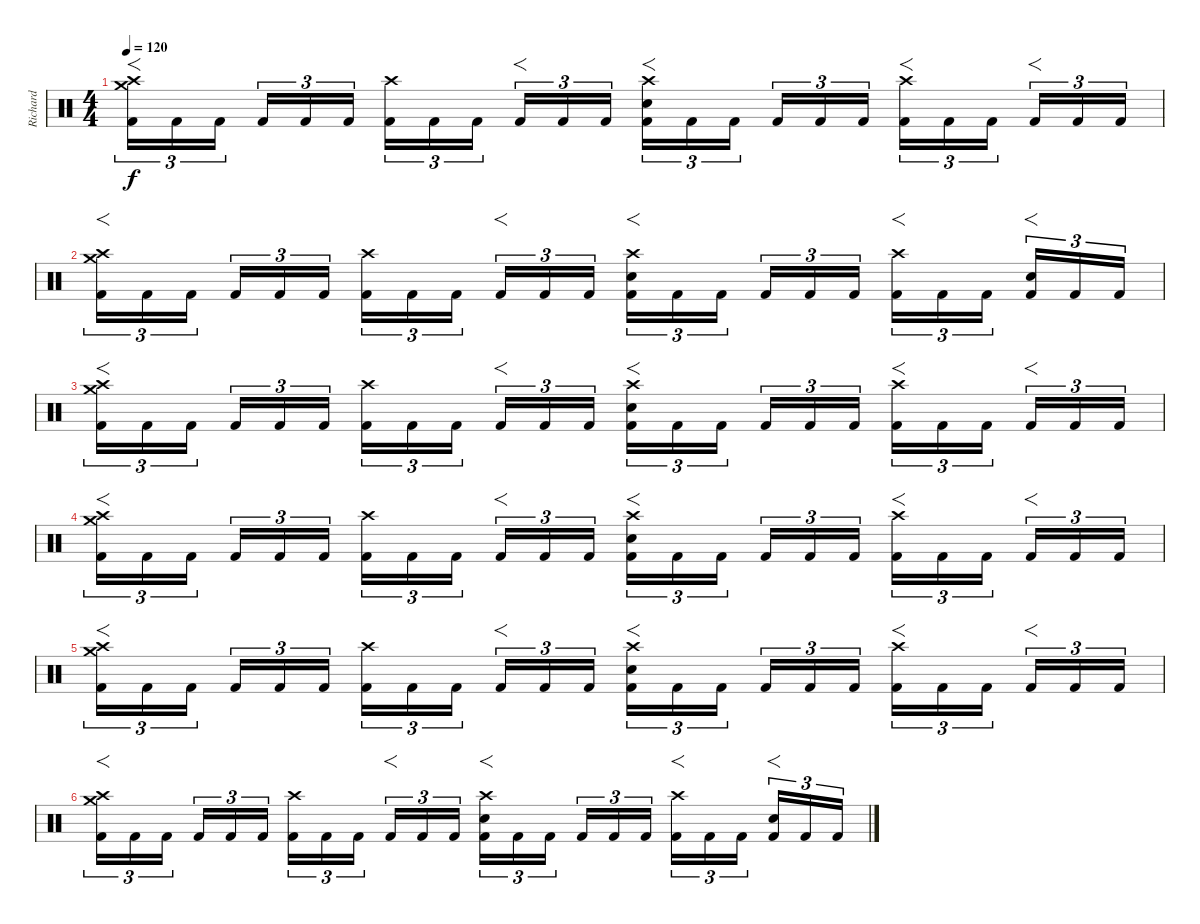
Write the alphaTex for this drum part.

\track ("Richard " "Richard ") {instrument percussion}
\staff {score}
\articulation defaults
\ts (4 4)
\tempo 120
\clef neutral
\ks c
("Crash high (hit)" "Crash medium (hit)" "Kick (hit) 2").16{f tu (3 2) dy f volume 6} "Kick (hit) 2".16{tu (3 2)} "Kick (hit) 2".16{tu (3 2)} "Kick (hit) 2".16{tu (3 2)} "Kick (hit) 2".16{tu (3 2)} "Kick (hit) 2".16{tu (3 2)} ("Crash high (hit)" "Kick (hit) 2").16{tu (3 2)} "Kick (hit) 2".16{tu (3 2)} "Kick (hit) 2".16{tu (3 2)} "Kick (hit) 2".16{f tu (3 2)} "Kick (hit) 2".16{tu (3 2)} "Kick (hit) 2".16{tu (3 2)} ("Crash high (hit)" "Snare (hit) 2" "Kick (hit) 2").16{f tu (3 2)} "Kick (hit) 2".16{tu (3 2)} "Kick (hit) 2".16{tu (3 2)} "Kick (hit) 2".16{tu (3 2)} "Kick (hit) 2".16{tu (3 2)} "Kick (hit) 2".16{tu (3 2)} ("Crash high (hit)" "Kick (hit) 2").16{f tu (3 2)} "Kick (hit) 2".16{tu (3 2)} "Kick (hit) 2".16{tu (3 2)} "Kick (hit) 2".16{f tu (3 2)} "Kick (hit) 2".16{tu (3 2)} "Kick (hit) 2".16{tu (3 2)} |
("Crash high (hit)" "Crash medium (hit)" "Kick (hit) 2").16{f tu (3 2) volume 6} "Kick (hit) 2".16{tu (3 2)} "Kick (hit) 2".16{tu (3 2)} "Kick (hit) 2".16{tu (3 2)} "Kick (hit) 2".16{tu (3 2)} "Kick (hit) 2".16{tu (3 2)} ("Crash high (hit)" "Kick (hit) 2").16{tu (3 2)} "Kick (hit) 2".16{tu (3 2)} "Kick (hit) 2".16{tu (3 2)} "Kick (hit) 2".16{f tu (3 2)} "Kick (hit) 2".16{tu (3 2)} "Kick (hit) 2".16{tu (3 2)} ("Crash high (hit)" "Snare (hit) 2" "Kick (hit) 2").16{f tu (3 2)} "Kick (hit) 2".16{tu (3 2)} "Kick (hit) 2".16{tu (3 2)} "Kick (hit) 2".16{tu (3 2)} "Kick (hit) 2".16{tu (3 2)} "Kick (hit) 2".16{tu (3 2)} ("Crash high (hit)" "Kick (hit) 2").16{f tu (3 2)} "Kick (hit) 2".16{tu (3 2)} "Kick (hit) 2".16{tu (3 2)} ("Snare (hit) 2" "Kick (hit) 2").16{f tu (3 2)} "Kick (hit) 2".16{tu (3 2)} "Kick (hit) 2".16{tu (3 2)} |
("Crash high (hit)" "Crash medium (hit)" "Kick (hit) 2").16{f tu (3 2) volume 4} "Kick (hit) 2".16{tu (3 2)} "Kick (hit) 2".16{tu (3 2)} "Kick (hit) 2".16{tu (3 2)} "Kick (hit) 2".16{tu (3 2)} "Kick (hit) 2".16{tu (3 2)} ("Crash high (hit)" "Kick (hit) 2").16{tu (3 2)} "Kick (hit) 2".16{tu (3 2)} "Kick (hit) 2".16{tu (3 2)} "Kick (hit) 2".16{f tu (3 2)} "Kick (hit) 2".16{tu (3 2)} "Kick (hit) 2".16{tu (3 2)} ("Crash high (hit)" "Snare (hit) 2" "Kick (hit) 2").16{f tu (3 2)} "Kick (hit) 2".16{tu (3 2)} "Kick (hit) 2".16{tu (3 2)} "Kick (hit) 2".16{tu (3 2)} "Kick (hit) 2".16{tu (3 2)} "Kick (hit) 2".16{tu (3 2)} ("Crash high (hit)" "Kick (hit) 2").16{f tu (3 2)} "Kick (hit) 2".16{tu (3 2)} "Kick (hit) 2".16{tu (3 2)} "Kick (hit) 2".16{f tu (3 2)} "Kick (hit) 2".16{tu (3 2)} "Kick (hit) 2".16{tu (3 2)} |
("Crash high (hit)" "Crash medium (hit)" "Kick (hit) 2").16{f tu (3 2) volume 3} "Kick (hit) 2".16{tu (3 2)} "Kick (hit) 2".16{tu (3 2)} "Kick (hit) 2".16{tu (3 2)} "Kick (hit) 2".16{tu (3 2)} "Kick (hit) 2".16{tu (3 2)} ("Crash high (hit)" "Kick (hit) 2").16{tu (3 2)} "Kick (hit) 2".16{tu (3 2)} "Kick (hit) 2".16{tu (3 2)} "Kick (hit) 2".16{f tu (3 2)} "Kick (hit) 2".16{tu (3 2)} "Kick (hit) 2".16{tu (3 2)} ("Crash high (hit)" "Snare (hit) 2" "Kick (hit) 2").16{f tu (3 2)} "Kick (hit) 2".16{tu (3 2)} "Kick (hit) 2".16{tu (3 2)} "Kick (hit) 2".16{tu (3 2)} "Kick (hit) 2".16{tu (3 2)} "Kick (hit) 2".16{tu (3 2)} ("Crash high (hit)" "Kick (hit) 2").16{f tu (3 2)} "Kick (hit) 2".16{tu (3 2)} "Kick (hit) 2".16{tu (3 2)} "Kick (hit) 2".16{f tu (3 2)} "Kick (hit) 2".16{tu (3 2)} "Kick (hit) 2".16{tu (3 2)} |
("Crash high (hit)" "Crash medium (hit)" "Kick (hit) 2").16{f tu (3 2) volume 2} "Kick (hit) 2".16{tu (3 2)} "Kick (hit) 2".16{tu (3 2)} "Kick (hit) 2".16{tu (3 2)} "Kick (hit) 2".16{tu (3 2)} "Kick (hit) 2".16{tu (3 2)} ("Crash high (hit)" "Kick (hit) 2").16{tu (3 2)} "Kick (hit) 2".16{tu (3 2)} "Kick (hit) 2".16{tu (3 2)} "Kick (hit) 2".16{f tu (3 2)} "Kick (hit) 2".16{tu (3 2)} "Kick (hit) 2".16{tu (3 2)} ("Crash high (hit)" "Snare (hit) 2" "Kick (hit) 2").16{f tu (3 2)} "Kick (hit) 2".16{tu (3 2)} "Kick (hit) 2".16{tu (3 2)} "Kick (hit) 2".16{tu (3 2)} "Kick (hit) 2".16{tu (3 2)} "Kick (hit) 2".16{tu (3 2)} ("Crash high (hit)" "Kick (hit) 2").16{f tu (3 2)} "Kick (hit) 2".16{tu (3 2)} "Kick (hit) 2".16{tu (3 2)} "Kick (hit) 2".16{f tu (3 2)} "Kick (hit) 2".16{tu (3 2)} "Kick (hit) 2".16{tu (3 2)} |
("Crash high (hit)" "Crash medium (hit)" "Kick (hit) 2").16{f tu (3 2) volume 1} "Kick (hit) 2".16{tu (3 2)} "Kick (hit) 2".16{tu (3 2)} "Kick (hit) 2".16{tu (3 2)} "Kick (hit) 2".16{tu (3 2)} "Kick (hit) 2".16{tu (3 2)} ("Crash high (hit)" "Kick (hit) 2").16{tu (3 2)} "Kick (hit) 2".16{tu (3 2)} "Kick (hit) 2".16{tu (3 2)} "Kick (hit) 2".16{f tu (3 2)} "Kick (hit) 2".16{tu (3 2)} "Kick (hit) 2".16{tu (3 2)} ("Crash high (hit)" "Snare (hit) 2" "Kick (hit) 2").16{f tu (3 2)} "Kick (hit) 2".16{tu (3 2)} "Kick (hit) 2".16{tu (3 2)} "Kick (hit) 2".16{tu (3 2)} "Kick (hit) 2".16{tu (3 2)} "Kick (hit) 2".16{tu (3 2)} ("Crash high (hit)" "Kick (hit) 2").16{f tu (3 2)} "Kick (hit) 2".16{tu (3 2)} "Kick (hit) 2".16{tu (3 2)} ("Snare (hit) 2" "Kick (hit) 2").16{f tu (3 2)} "Kick (hit) 2".16{tu (3 2)} "Kick (hit) 2".16{tu (3 2)}
